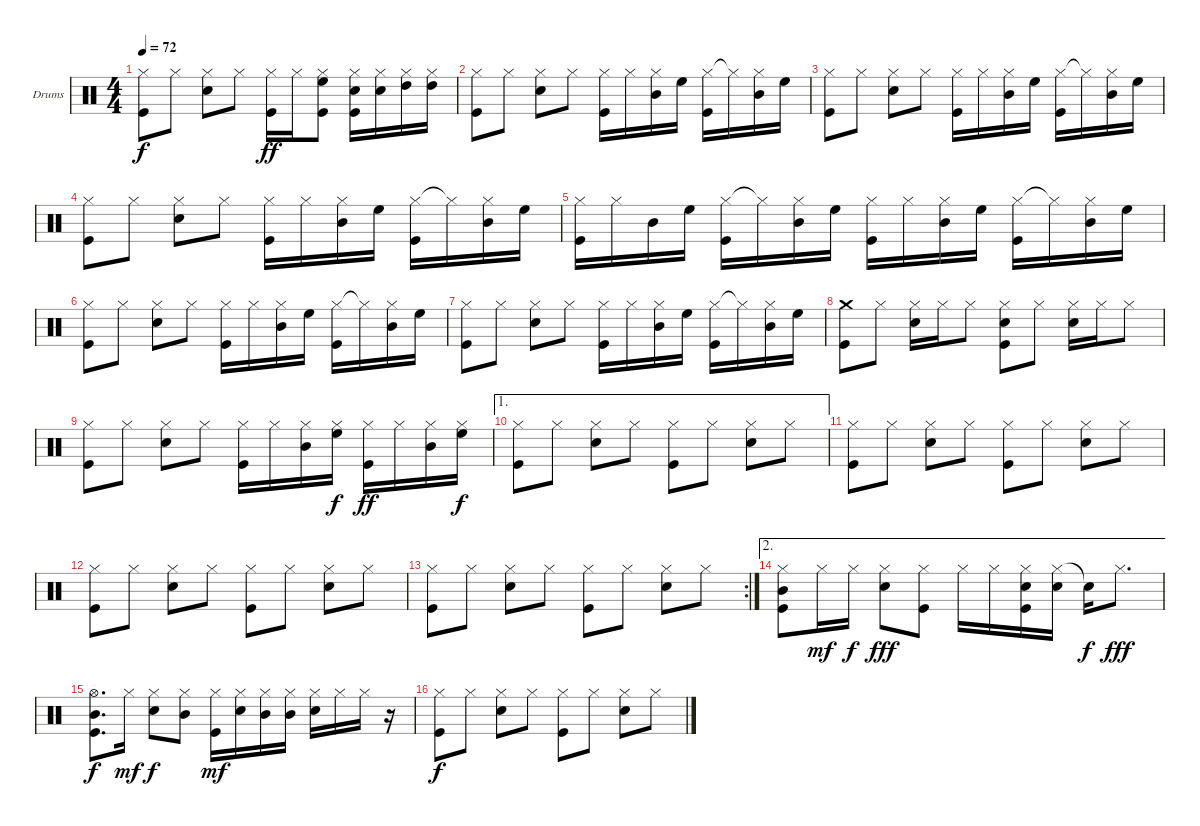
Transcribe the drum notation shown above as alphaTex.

\bracketExtendMode groupsimilarinstruments
\firstSystemTrackNameOrientation horizontal
\otherSystemsTrackNameOrientation horizontal
\track ("Drumkit" "Drums") {instrument percussion}
\staff {score}
\articulation defaults
\ts (4 4)
\tempo 72
\clef neutral
\ks c
("Hi-Hat (closed)" "Kick (hit)").8{dy f} "Hi-Hat (closed)".8 ("Hi-Hat (closed)" "Snare (hit) 2").8 "Hi-Hat (closed)".8 ("Hi-Hat (closed)" "Kick (hit)").16{dy ff} "Hi-Hat (closed)".16 ("Hi-Hat (closed)" "High Floor Tom (hit)" "Kick (hit)").8 ("Hi-Hat (closed)" "Snare (hit) 2" "Kick (hit)").16 ("Hi-Hat (closed)" "Snare (hit) 2").16 ("Hi-Hat (closed)" "High Tom (hit)").16 ("Hi-Hat (closed)" "High Tom (hit)").16 |
("Hi-Hat (closed)" "Kick (hit)").8 "Hi-Hat (closed)".8 ("Hi-Hat (closed)" "Snare (hit) 2").8 "Hi-Hat (closed)".8 ("Hi-Hat (closed)" "Kick (hit)").16 "Hi-Hat (closed)".16 ("Hi-Hat (closed)" "Mid Tom (hit)").16 "High Floor Tom (hit)".16 ("Hi-Hat (closed)" "Kick (hit)").16 "Hi-Hat (closed)"{t}.16 ("Hi-Hat (closed)" "Mid Tom (hit)").16 "High Floor Tom (hit)".16 |
("Hi-Hat (closed)" "Kick (hit)").8 "Hi-Hat (closed)".8 ("Hi-Hat (closed)" "Snare (hit) 2").8 "Hi-Hat (closed)".8 ("Hi-Hat (closed)" "Kick (hit)").16 "Hi-Hat (closed)".16 ("Hi-Hat (closed)" "Mid Tom (hit)").16 "High Floor Tom (hit)".16 ("Hi-Hat (closed)" "Kick (hit)").16 "Hi-Hat (closed)"{t}.16 ("Hi-Hat (closed)" "Mid Tom (hit)").16 "High Floor Tom (hit)".16 |
("Hi-Hat (closed)" "Kick (hit)").8 "Hi-Hat (closed)".8 ("Hi-Hat (closed)" "Snare (hit) 2").8 "Hi-Hat (closed)".8 ("Hi-Hat (closed)" "Kick (hit)").16 "Hi-Hat (closed)".16 ("Hi-Hat (closed)" "Mid Tom (hit)").16 "High Floor Tom (hit)".16 ("Hi-Hat (closed)" "Kick (hit)").16 "Hi-Hat (closed)"{t}.16 ("Hi-Hat (closed)" "Mid Tom (hit)").16 "High Floor Tom (hit)".16 |
("Hi-Hat (closed)" "Kick (hit)").16 "Hi-Hat (closed)".16 "Mid Tom (hit)".16 "High Floor Tom (hit)".16 ("Hi-Hat (closed)" "Kick (hit)").16 "Hi-Hat (closed)"{t}.16 ("Hi-Hat (closed)" "Mid Tom (hit)").16 "High Floor Tom (hit)".16 ("Hi-Hat (closed)" "Kick (hit)").16 "Hi-Hat (closed)".16 ("Hi-Hat (closed)" "Mid Tom (hit)").16 "High Floor Tom (hit)".16 ("Hi-Hat (closed)" "Kick (hit)").16 "Hi-Hat (closed)"{t}.16 ("Hi-Hat (closed)" "Mid Tom (hit)").16 "High Floor Tom (hit)".16 |
("Hi-Hat (closed)" "Kick (hit)").8 "Hi-Hat (closed)".8 ("Hi-Hat (closed)" "Snare (hit) 2").8 "Hi-Hat (closed)".8 ("Hi-Hat (closed)" "Kick (hit)").16 "Hi-Hat (closed)".16 ("Hi-Hat (closed)" "Mid Tom (hit)").16 "High Floor Tom (hit)".16 ("Hi-Hat (closed)" "Kick (hit)").16 "Hi-Hat (closed)"{t}.16 ("Hi-Hat (closed)" "Mid Tom (hit)").16 "High Floor Tom (hit)".16 |
("Hi-Hat (closed)" "Kick (hit)").8 "Hi-Hat (closed)".8 ("Hi-Hat (closed)" "Snare (hit) 2").8 "Hi-Hat (closed)".8 ("Hi-Hat (closed)" "Kick (hit)").16 "Hi-Hat (closed)".16 ("Hi-Hat (closed)" "Mid Tom (hit)").16 "High Floor Tom (hit)".16 ("Hi-Hat (closed)" "Kick (hit)").16 "Hi-Hat (closed)"{t}.16 ("Hi-Hat (closed)" "Mid Tom (hit)").16 "High Floor Tom (hit)".16 |
("Crash medium (hit)" "Kick (hit)").8 "Hi-Hat (closed)".8 ("Hi-Hat (closed)" "Snare (hit) 2").16 "Hi-Hat (closed)".16 "Hi-Hat (closed)".8 ("Hi-Hat (closed)" "Snare (hit) 2" "Kick (hit)").8 "Hi-Hat (closed)".8 ("Hi-Hat (closed)" "Snare (hit) 2").16 "Hi-Hat (closed)".16 "Hi-Hat (closed)".8 |
("Hi-Hat (closed)" "Kick (hit)").8 "Hi-Hat (closed)".8 ("Hi-Hat (closed)" "Snare (hit) 2").8 "Hi-Hat (closed)".8 ("Hi-Hat (closed)" "Kick (hit)").16 "Hi-Hat (closed)".16 ("Hi-Hat (closed)" "Mid Tom (hit)").16 ("Hi-Hat (closed)" "High Floor Tom (hit)").16{dy f} ("Hi-Hat (closed)" "Kick (hit)").16{dy ff} "Hi-Hat (closed)".16 ("Hi-Hat (closed)" "Mid Tom (hit)").16 ("Hi-Hat (closed)" "High Floor Tom (hit)").16{dy f} |
\ae 1
("Hi-Hat (closed)" "Kick (hit)").8 "Hi-Hat (closed)".8 ("Hi-Hat (closed)" "Snare (hit) 2").8 "Hi-Hat (closed)".8 ("Hi-Hat (closed)" "Kick (hit)").8 "Hi-Hat (closed)".8 ("Hi-Hat (closed)" "Snare (hit) 2").8 "Hi-Hat (closed)".8 |
("Hi-Hat (closed)" "Kick (hit)").8 "Hi-Hat (closed)".8 ("Hi-Hat (closed)" "Snare (hit) 2").8 "Hi-Hat (closed)".8 ("Hi-Hat (closed)" "Kick (hit)").8 "Hi-Hat (closed)".8 ("Hi-Hat (closed)" "Snare (hit) 2").8 "Hi-Hat (closed)".8 |
("Hi-Hat (closed)" "Kick (hit)").8 "Hi-Hat (closed)".8 ("Hi-Hat (closed)" "Snare (hit) 2").8 "Hi-Hat (closed)".8 ("Hi-Hat (closed)" "Kick (hit)").8 "Hi-Hat (closed)".8 ("Hi-Hat (closed)" "Snare (hit) 2").8 "Hi-Hat (closed)".8 |
\rc 2
("Hi-Hat (closed)" "Kick (hit)").8 "Hi-Hat (closed)".8 ("Hi-Hat (closed)" "Snare (hit) 2").8 "Hi-Hat (closed)".8 ("Hi-Hat (closed)" "Kick (hit)").8 "Hi-Hat (closed)".8 ("Hi-Hat (closed)" "Snare (hit) 2").8 "Hi-Hat (closed)".8 |
\ae 2
("Hi-Hat (closed)" "Mid Tom (hit)" "Kick (hit)").8 "Hi-Hat (closed)".16{dy mf} "Hi-Hat (closed)".16{dy f} ("Hi-Hat (closed)" "Snare (hit) 2").8{dy fff} ("Hi-Hat (closed)" "Kick (hit)").8 "Hi-Hat (closed)".16 "Hi-Hat (closed)".16 ("Hi-Hat (closed)" "Snare (hit) 2" "Kick (hit)").16 ("Hi-Hat (closed)" "Snare (hit) 2").16 "Snare (hit) 2"{t}.16{dy f} "Hi-Hat (closed)".8{d dy fff} |
("Hi-Hat (open)" "Mid Tom (hit)" "Kick (hit)").8{d dy f} "Hi-Hat (closed)".16{dy mf} ("Hi-Hat (closed)" "Snare (hit) 2").8{dy f} ("Hi-Hat (closed)" "Mid Tom (hit)").8 ("Hi-Hat (closed)" "Kick (hit)").16{dy mf} ("Hi-Hat (closed)" "Snare (hit) 2").16 ("Hi-Hat (closed)" "Mid Tom (hit)").16 ("Hi-Hat (closed)" "Mid Tom (hit)").16 ("Hi-Hat (closed)" "Snare (hit) 2").16 "Hi-Hat (closed)".16 "Hi-Hat (closed)".16 r.16 |
("Hi-Hat (closed)" "Kick (hit)").8{dy f} "Hi-Hat (closed)".8 ("Hi-Hat (closed)" "Snare (hit) 2").8 "Hi-Hat (closed)".8 ("Hi-Hat (closed)" "Kick (hit)").8 "Hi-Hat (closed)".8 ("Hi-Hat (closed)" "Snare (hit) 2").8 "Hi-Hat (closed)".8
